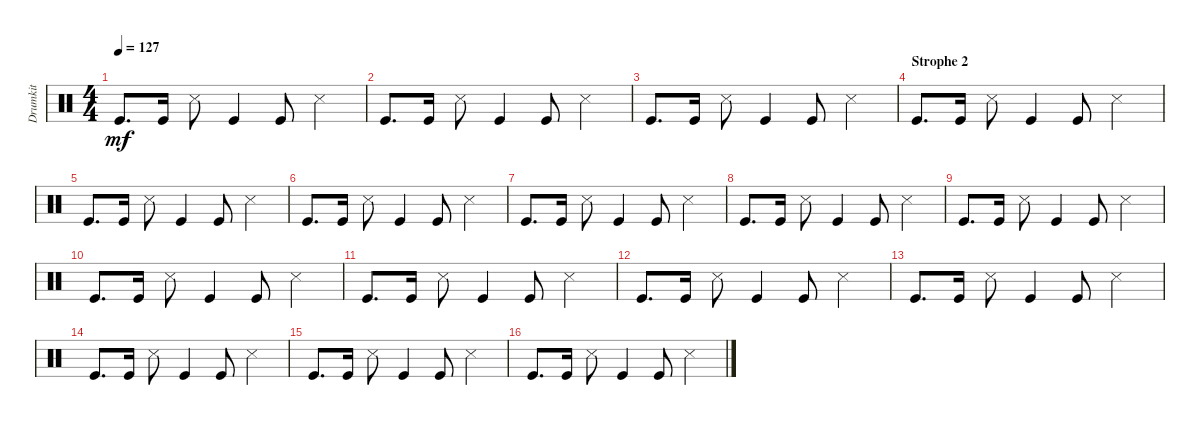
\track ("Drumkit" "Drumkit") {instrument percussion}
\staff {score}
\articulation defaults
\ts (4 4)
\tempo 127
\clef neutral
\ks c "Kick (hit)".8{d dy mf} "Kick (hit)".16 "Snare (side stick) 3".8 "Kick (hit)".4 "Kick (hit)".8 "Snare (side stick) 3".4
|
"Kick (hit)".8{d} "Kick (hit)".16 "Snare (side stick) 3".8 "Kick (hit)".4 "Kick (hit)".8 "Snare (side stick) 3".4 |
"Kick (hit)".8{d} "Kick (hit)".16 "Snare (side stick) 3".8 "Kick (hit)".4 "Kick (hit)".8 "Snare (side stick) 3".4 |
\section ("" "Strophe 2")
"Kick (hit)".8{d} "Kick (hit)".16 "Snare (side stick) 3".8 "Kick (hit)".4 "Kick (hit)".8 "Snare (side stick) 3".4 |
"Kick (hit)".8{d} "Kick (hit)".16 "Snare (side stick) 3".8 "Kick (hit)".4 "Kick (hit)".8 "Snare (side stick) 3".4 |
"Kick (hit)".8{d} "Kick (hit)".16 "Snare (side stick) 3".8 "Kick (hit)".4 "Kick (hit)".8 "Snare (side stick) 3".4 |
"Kick (hit)".8{d} "Kick (hit)".16 "Snare (side stick) 3".8 "Kick (hit)".4 "Kick (hit)".8 "Snare (side stick) 3".4 |
"Kick (hit)".8{d} "Kick (hit)".16 "Snare (side stick) 3".8 "Kick (hit)".4 "Kick (hit)".8 "Snare (side stick) 3".4 |
"Kick (hit)".8{d} "Kick (hit)".16 "Snare (side stick) 3".8 "Kick (hit)".4 "Kick (hit)".8 "Snare (side stick) 3".4 |
"Kick (hit)".8{d} "Kick (hit)".16 "Snare (side stick) 3".8 "Kick (hit)".4 "Kick (hit)".8 "Snare (side stick) 3".4 |
"Kick (hit)".8{d} "Kick (hit)".16 "Snare (side stick) 3".8 "Kick (hit)".4 "Kick (hit)".8 "Snare (side stick) 3".4 |
"Kick (hit)".8{d} "Kick (hit)".16 "Snare (side stick) 3".8 "Kick (hit)".4 "Kick (hit)".8 "Snare (side stick) 3".4 |
"Kick (hit)".8{d} "Kick (hit)".16 "Snare (side stick) 3".8 "Kick (hit)".4 "Kick (hit)".8 "Snare (side stick) 3".4 |
"Kick (hit)".8{d} "Kick (hit)".16 "Snare (side stick) 3".8 "Kick (hit)".4 "Kick (hit)".8 "Snare (side stick) 3".4 |
"Kick (hit)".8{d} "Kick (hit)".16 "Snare (side stick) 3".8 "Kick (hit)".4 "Kick (hit)".8 "Snare (side stick) 3".4 |
"Kick (hit)".8{d} "Kick (hit)".16 "Snare (side stick) 3".8 "Kick (hit)".4 "Kick (hit)".8 "Snare (side stick) 3".4
